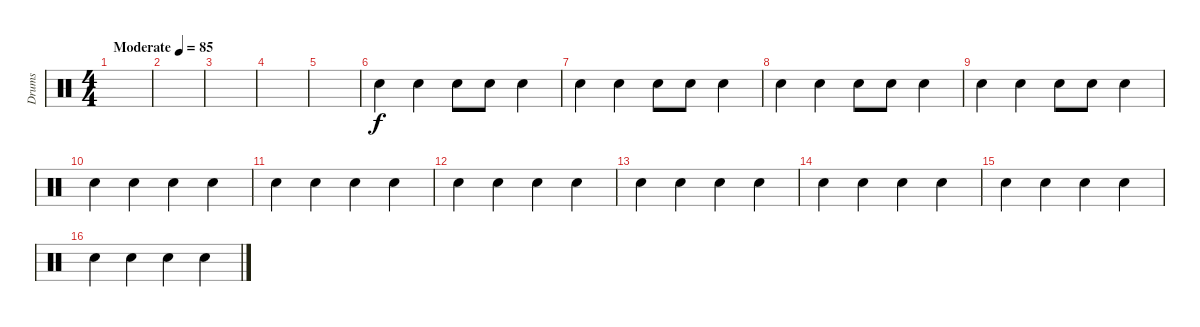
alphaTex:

\track ("Drums" "Drums") {instrument percussion}
\staff {score}
\articulation defaults
\ts (4 4)
\tempo (85 "Moderate")
\clef neutral
\ks c
|
|
|
|
|
"Snare (hit) 2".4 "Electric Snare (hit)".4 "Snare (hit) 2".8 "Snare (hit) 2".8 "Electric Snare (hit)".4 |
"Snare (hit) 2".4 "Electric Snare (hit)".4 "Snare (hit) 2".8 "Snare (hit) 2".8 "Electric Snare (hit)".4 |
"Snare (hit) 2".4 "Electric Snare (hit)".4 "Snare (hit) 2".8 "Snare (hit) 2".8 "Electric Snare (hit)".4 |
"Snare (hit) 2".4 "Electric Snare (hit)".4 "Snare (hit) 2".8 "Snare (hit) 2".8 "Electric Snare (hit)".4 |
"Snare (hit) 2".4 "Electric Snare (hit)".4 "Snare (hit) 2".4 "Electric Snare (hit)".4 |
"Snare (hit) 2".4 "Electric Snare (hit)".4 "Snare (hit) 2".4 "Electric Snare (hit)".4 |
"Snare (hit) 2".4 "Electric Snare (hit)".4 "Snare (hit) 2".4 "Electric Snare (hit)".4 |
"Snare (hit) 2".4 "Electric Snare (hit)".4 "Snare (hit) 2".4 "Electric Snare (hit)".4 |
"Snare (hit) 2".4 "Electric Snare (hit)".4 "Snare (hit) 2".4 "Electric Snare (hit)".4 |
"Snare (hit) 2".4 "Electric Snare (hit)".4 "Snare (hit) 2".4 "Electric Snare (hit)".4 |
"Snare (hit) 2".4 "Electric Snare (hit)".4 "Snare (hit) 2".4 "Electric Snare (hit)".4
